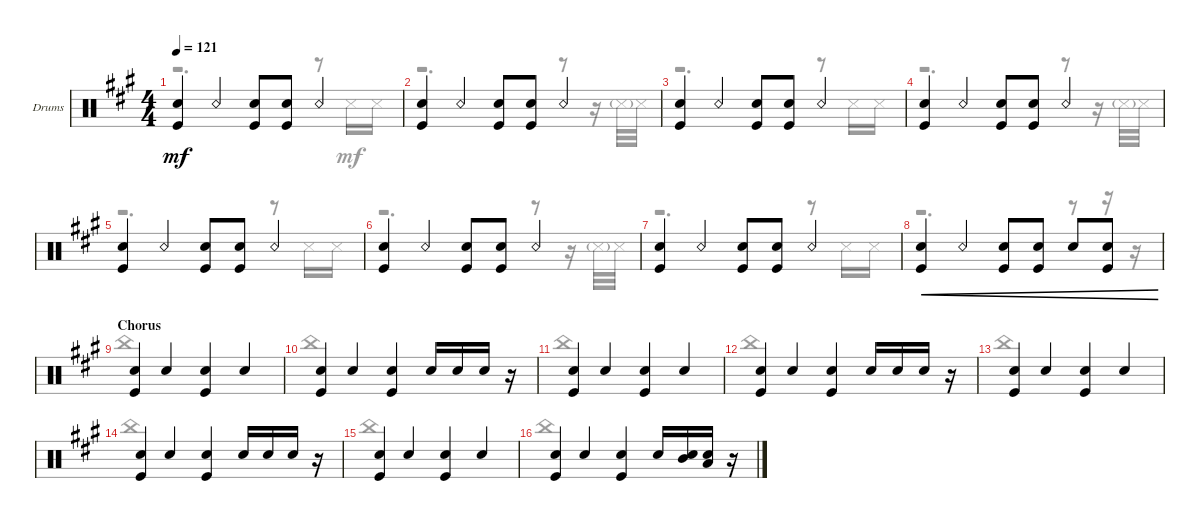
\defaultSystemsLayout 4
\bracketExtendMode groupsimilarinstruments
\firstSystemTrackNameOrientation horizontal
\otherSystemsTrackNameOrientation horizontal
\track ("Drumkit" "Drums") {instrument percussion}
\staff {score}
\articulation defaults
\voice
\ts (4 4)
\tempo 121
\clef neutral
\ks a
("Kick (hit)" "Snare (hit) 2").4{dy mf} "Snare (rim shot)".4 ("Kick (hit)" "Snare (hit) 2").8 ("Kick (hit)" "Snare (hit) 2").8 "Snare (rim shot)".4 |
("Kick (hit)" "Snare (hit) 2").4 "Snare (rim shot)".4 ("Kick (hit)" "Snare (hit) 2").8 ("Kick (hit)" "Snare (hit) 2").8 "Snare (rim shot)".4 |
("Kick (hit)" "Snare (hit) 2").4 "Snare (rim shot)".4 ("Kick (hit)" "Snare (hit) 2").8 ("Kick (hit)" "Snare (hit) 2").8 "Snare (rim shot)".4 |
("Kick (hit)" "Snare (hit) 2").4 "Snare (rim shot)".4 ("Kick (hit)" "Snare (hit) 2").8 ("Kick (hit)" "Snare (hit) 2").8 "Snare (rim shot)".4 |
("Kick (hit)" "Snare (hit) 2").4 "Snare (rim shot)".4 ("Kick (hit)" "Snare (hit) 2").8 ("Kick (hit)" "Snare (hit) 2").8 "Snare (rim shot)".4 |
("Kick (hit)" "Snare (hit) 2").4 "Snare (rim shot)".4 ("Kick (hit)" "Snare (hit) 2").8 ("Kick (hit)" "Snare (hit) 2").8 "Snare (rim shot)".4 |
("Kick (hit)" "Snare (hit) 2").4 "Snare (rim shot)".4 ("Kick (hit)" "Snare (hit) 2").8 ("Kick (hit)" "Snare (hit) 2").8 "Snare (rim shot)".4 |
("Kick (hit)" "Snare (hit) 2").4{cre} "Snare (rim shot)".4{cre} ("Kick (hit)" "Snare (hit) 2").8{cre} ("Kick (hit)" "Snare (hit) 2").8{cre} "Snare (hit) 2".8{cre} ("Snare (hit) 2" "Kick (hit)").8{cre} |
\section ("" "Chorus")
("Kick (hit)" "Snare (hit) 2").4 "Snare (hit) 2".4 ("Kick (hit)" "Snare (hit) 2").4 "Snare (hit) 2".4 |
("Kick (hit)" "Snare (hit) 2").4 "Snare (hit) 2".4 ("Kick (hit)" "Snare (hit) 2").4 "Snare (hit) 2".16 "Snare (hit) 2".16 "Snare (hit) 2".16 r.16 |
("Kick (hit)" "Snare (hit) 2").4 "Snare (hit) 2".4 ("Kick (hit)" "Snare (hit) 2").4 "Snare (hit) 2".4 |
("Kick (hit)" "Snare (hit) 2").4 "Snare (hit) 2".4 ("Kick (hit)" "Snare (hit) 2").4 "Snare (hit) 2".16 "Snare (hit) 2".16 "Snare (hit) 2".16 r.16 |
("Kick (hit)" "Snare (hit) 2").4 "Snare (hit) 2".4 ("Kick (hit)" "Snare (hit) 2").4 "Snare (hit) 2".4 |
("Kick (hit)" "Snare (hit) 2").4 "Snare (hit) 2".4 ("Kick (hit)" "Snare (hit) 2").4 "Snare (hit) 2".16 "Snare (hit) 2".16 "Snare (hit) 2".16 r.16 |
("Kick (hit)" "Snare (hit) 2").4 "Snare (hit) 2".4 ("Kick (hit)" "Snare (hit) 2").4 "Snare (hit) 2".4 |
("Kick (hit)" "Snare (hit) 2").4 "Snare (hit) 2".4 ("Kick (hit)" "Snare (hit) 2").4 "Snare (hit) 2".16 ("Mid Tom (hit)" "Snare (hit) 2").16 ("Low Tom (hit)" "Snare (hit) 2").16 r.16
\voice
\clef neutral
\ottava regular
\simile none
\ks a
r.2{d dy mf} r.8 "Snare (side stick) 3".16 "Snare (side stick) 3".16 |
r.2{d} r.8 r.16 "Snare (side stick) 3"{g}.32 "Snare (side stick) 3".32 |
r.2{d} r.8 "Snare (side stick) 3".16 "Snare (side stick) 3".16 |
r.2{d} r.8 r.16 "Snare (side stick) 3"{g}.32 "Snare (side stick) 3".32 |
r.2{d} r.8 "Snare (side stick) 3".16 "Snare (side stick) 3".16 |
r.2{d} r.8 r.16 "Snare (side stick) 3"{g}.32 "Snare (side stick) 3".32 |
r.2{d} r.8 "Snare (side stick) 3".16 "Snare (side stick) 3".16 |
r.2{d} r.8 r.16 r.16 |
"China (hit)".1 |
"China (hit)".1 |
"China (hit)".1 |
"China (hit)".1 |
"China (hit)".1 |
"China (hit)".1 |
"China (hit)".1 |
"China (hit)".1
